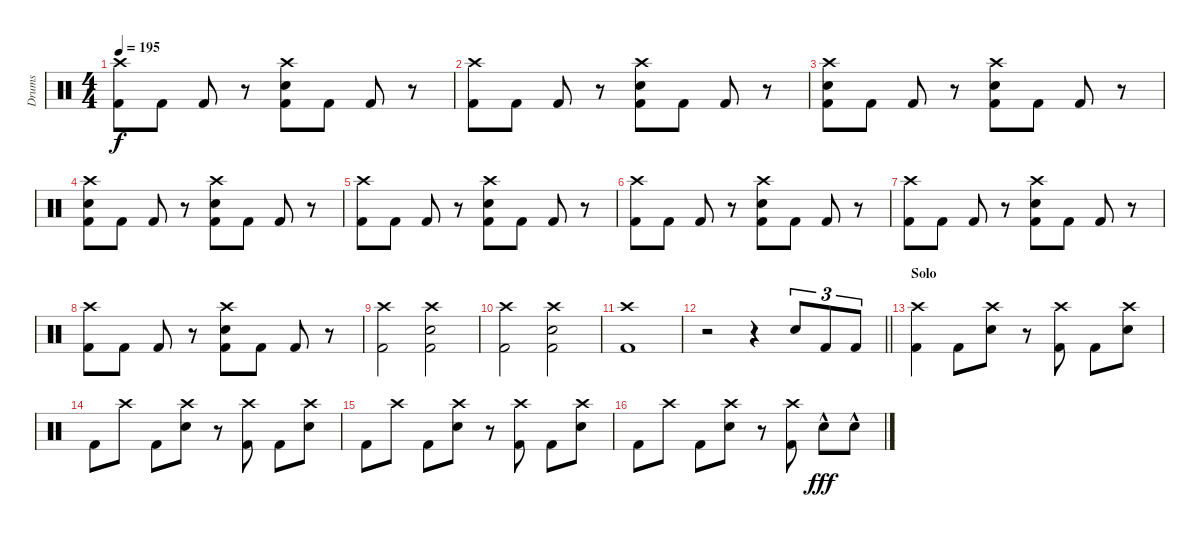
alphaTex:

\track ("Drums" "Drums") {instrument percussion}
\staff {score}
\articulation defaults
\ts (4 4)
\tempo 195
\clef neutral
\ks c
("Crash high (hit)" "Kick (hit) 2").8{dy f} "Kick (hit) 2".8 "Kick (hit) 2".8 r.8 ("Crash high (hit)" "Electric Snare (hit)" "Kick (hit) 2").8 "Kick (hit) 2".8 "Kick (hit) 2".8 r.8 |
("Crash high (hit)" "Kick (hit) 2").8 "Kick (hit) 2".8 "Kick (hit) 2".8 r.8 ("Crash high (hit)" "Electric Snare (hit)" "Kick (hit) 2").8 "Kick (hit) 2".8 "Kick (hit) 2".8 r.8 |
("Crash high (hit)" "Electric Snare (hit)" "Kick (hit) 2").8 "Kick (hit) 2".8 "Kick (hit) 2".8 r.8 ("Crash high (hit)" "Electric Snare (hit)" "Kick (hit) 2").8 "Kick (hit) 2".8 "Kick (hit) 2".8 r.8 |
("Crash high (hit)" "Electric Snare (hit)" "Kick (hit) 2").8 "Kick (hit) 2".8 "Kick (hit) 2".8 r.8 ("Crash high (hit)" "Electric Snare (hit)" "Kick (hit) 2").8 "Kick (hit) 2".8 "Kick (hit) 2".8 r.8 |
("Crash high (hit)" "Kick (hit) 2").8 "Kick (hit) 2".8 "Kick (hit) 2".8 r.8 ("Crash high (hit)" "Electric Snare (hit)" "Kick (hit) 2").8 "Kick (hit) 2".8 "Kick (hit) 2".8 r.8 |
("Crash high (hit)" "Kick (hit) 2").8 "Kick (hit) 2".8 "Kick (hit) 2".8 r.8 ("Crash high (hit)" "Electric Snare (hit)" "Kick (hit) 2").8 "Kick (hit) 2".8 "Kick (hit) 2".8 r.8 |
("Crash high (hit)" "Kick (hit) 2").8 "Kick (hit) 2".8 "Kick (hit) 2".8 r.8 ("Crash high (hit)" "Electric Snare (hit)" "Kick (hit) 2").8 "Kick (hit) 2".8 "Kick (hit) 2".8 r.8 |
("Crash high (hit)" "Kick (hit) 2").8 "Kick (hit) 2".8 "Kick (hit) 2".8 r.8 ("Crash high (hit)" "Electric Snare (hit)" "Kick (hit) 2").8 "Kick (hit) 2".8 "Kick (hit) 2".8 r.8 |
("Crash high (hit)" "Kick (hit) 2").2 ("Crash high (hit)" "Electric Snare (hit)" "Kick (hit) 2").2 |
("Crash high (hit)" "Kick (hit) 2").2 ("Crash high (hit)" "Electric Snare (hit)" "Kick (hit) 2").2 |
("Crash high (hit)" "Kick (hit) 2").1 |
\barLineRight lightlight
r.2 r.4 "Electric Snare (hit)".8{tu (3 2)} "Kick (hit) 2".8{tu (3 2)} "Kick (hit) 2".8{tu (3 2)} |
\section ("" "Solo")
("Crash high (hit)" "Kick (hit) 2").4 "Kick (hit) 2".8 ("Crash high (hit)" "Electric Snare (hit)").8 r.8 ("Crash high (hit)" "Kick (hit) 2").8 "Kick (hit) 2".8 ("Crash high (hit)" "Electric Snare (hit)").8 |
"Kick (hit) 2".8 "Crash high (hit)".8 "Kick (hit) 2".8 ("Crash high (hit)" "Electric Snare (hit)").8 r.8 ("Crash high (hit)" "Kick (hit) 2").8 "Kick (hit) 2".8 ("Crash high (hit)" "Electric Snare (hit)").8 |
"Kick (hit) 2".8 "Crash high (hit)".8 "Kick (hit) 2".8 ("Crash high (hit)" "Electric Snare (hit)").8 r.8 ("Crash high (hit)" "Kick (hit) 2").8 "Kick (hit) 2".8 ("Crash high (hit)" "Electric Snare (hit)").8 |
"Kick (hit) 2".8 "Crash high (hit)".8 "Kick (hit) 2".8 ("Crash high (hit)" "Electric Snare (hit)").8 r.8 ("Crash high (hit)" "Kick (hit) 2").8 "Electric Snare (hit)"{hac}.8{dy fff} "Electric Snare (hit)"{hac}.8
